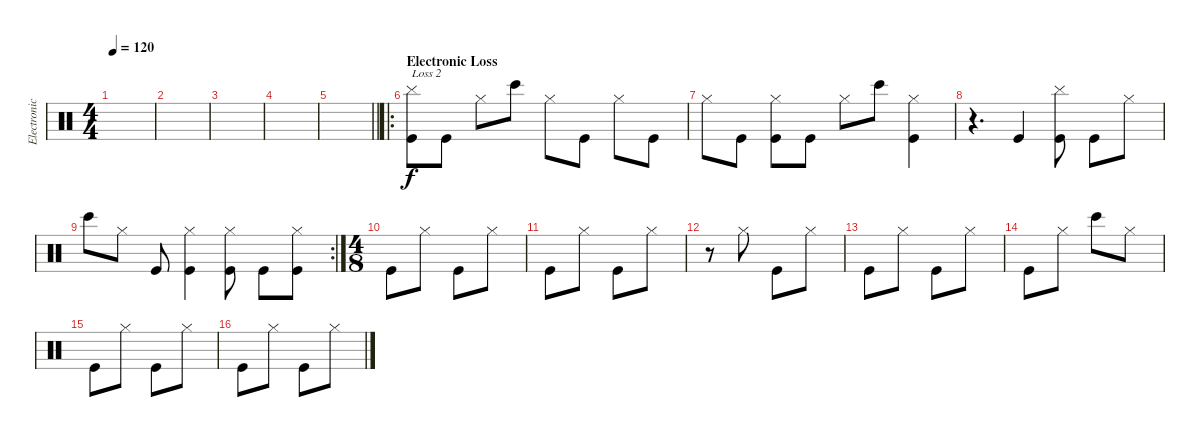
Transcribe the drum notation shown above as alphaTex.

\track ("Electronic Drums" "Electronic") {instrument percussion}
\staff {score}
\articulation defaults
\ts (4 4)
\tempo 120
\clef neutral
\ks c
|
|
|
|
\barLineRight lightlight
|
\ro
\section ("" "Electronic Loss")
("Cymbal (hit)" "Kick (hit)").8{txt "Loss 2"} "Kick (hit)".8 "Hi-Hat (closed)".8 "Bongo High (hit)".8 "Hi-Hat (closed)".8 "Kick (hit)".8 "Hi-Hat (closed)".8 "Kick (hit)".8 |
"Hi-Hat (closed)".8 "Kick (hit)".8 ("Hi-Hat (closed)" "Kick (hit)").8 "Kick (hit)".8 "Hi-Hat (closed)".8 "Bongo High (hit)".8 ("Hi-Hat (closed)" "Kick (hit)").4 |
r.4{d} "Kick (hit)".4 ("Cymbal (hit)" "Kick (hit)").8 "Kick (hit)".8 "Hi-Hat (closed)".8 |
\rc 2 "Bongo High (hit)".8 "Hi-Hat (closed)".8 "Kick (hit)".8
("Hi-Hat (closed)" "Kick (hit)").4 ("Hi-Hat (closed)" "Kick (hit)").8 "Kick (hit)".8 ("Hi-Hat (closed)" "Kick (hit)").8 |
\ts (4 8)
"Kick (hit)".8 "Hi-Hat (closed)".8 "Kick (hit)".8 "Hi-Hat (closed)".8 |
"Kick (hit)".8 "Hi-Hat (closed)".8 "Kick (hit)".8 "Hi-Hat (closed)".8 |
r.8 "Hi-Hat (closed)".8 "Kick (hit)".8 "Hi-Hat (closed)".8 |
"Kick (hit)".8 "Hi-Hat (closed)".8 "Kick (hit)".8 "Hi-Hat (closed)".8 |
"Kick (hit)".8 "Hi-Hat (closed)".8 "Bongo High (hit)".8 "Hi-Hat (closed)".8 |
"Kick (hit)".8 "Hi-Hat (closed)".8 "Kick (hit)".8 "Hi-Hat (closed)".8 |
"Kick (hit)".8 "Hi-Hat (closed)".8 "Kick (hit)".8 "Hi-Hat (closed)".8
